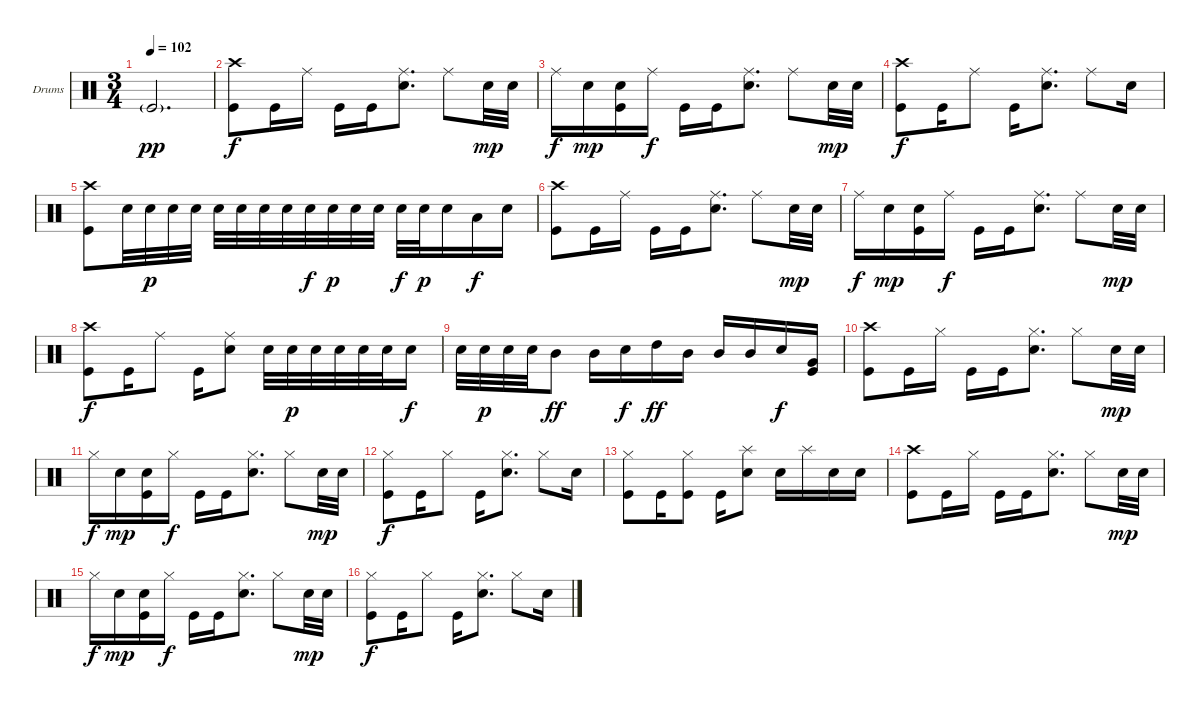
\bracketExtendMode groupsimilarinstruments
\firstSystemTrackNameOrientation horizontal
\otherSystemsTrackNameOrientation horizontal
\track ("Drumkit" "Drums") {instrument percussion}
\staff {score}
\articulation defaults
\ts (3 4)
\tempo 102
\clef neutral
\ks c "Kick (hit)"{g}.2{d dy pp}
|
("Crash high (hit)" "Kick (hit)").8{dy f} "Kick (hit)".16 "Ride (middle)".16 "Kick (hit)".16 "Kick (hit)".16 ("Ride (middle)" "Snare (hit) 2").8{d} "Ride (middle)".8 "Snare (hit) 2".32{dy mp} "Snare (hit) 2".32 |
"Ride (middle)".16{dy f} "Snare (hit) 2".16{dy mp} ("Snare (hit) 2" "Kick (hit)").16 "Ride (middle)".16{dy f} "Kick (hit)".16 "Kick (hit)".16 ("Ride (middle)" "Snare (hit) 2").8{d} "Ride (middle)".8 "Snare (hit) 2".32{dy mp} "Snare (hit) 2".32 |
("Crash high (hit)" "Kick (hit)").8{dy f} "Kick (hit)".16 "Ride (middle)".8 "Kick (hit)".16 ("Ride (middle)" "Snare (hit) 2").8{d} "Ride (middle)".8 "Snare (hit) 2".16 |
("Crash high (hit)" "Kick (hit)").8 "Snare (hit) 2".32 "Snare (hit) 2".32{dy p} "Snare (hit) 2".32 "Snare (hit) 2".32 "Snare (hit) 2".32 "Snare (hit) 2".32 "Snare (hit) 2".32 "Snare (hit) 2".32 "Snare (hit) 2".32{dy f} "Snare (hit) 2".32{dy p} "Snare (hit) 2".32 "Snare (hit) 2".32 "Snare (hit) 2".32{dy f} "Snare (hit) 2".32{dy p} "Snare (hit) 2".16 "Low Tom (hit)".16{dy f} "Snare (hit) 2".16 |
("Crash high (hit)" "Kick (hit)").8 "Kick (hit)".16 "Ride (middle)".16 "Kick (hit)".16 "Kick (hit)".16 ("Ride (middle)" "Snare (hit) 2").8{d} "Ride (middle)".8 "Snare (hit) 2".32{dy mp} "Snare (hit) 2".32 |
"Ride (middle)".16{dy f} "Snare (hit) 2".16{dy mp} ("Snare (hit) 2" "Kick (hit)").16 "Ride (middle)".16{dy f} "Kick (hit)".16 "Kick (hit)".16 ("Ride (middle)" "Snare (hit) 2").8{d} "Ride (middle)".8 "Snare (hit) 2".32{dy mp} "Snare (hit) 2".32 |
("Crash high (hit)" "Kick (hit)").8{dy f} "Kick (hit)".16 "Ride (middle)".8 "Kick (hit)".16 ("Ride (middle)" "Snare (hit) 2").8 "Snare (hit) 2".32 "Snare (hit) 2".32{dy p} "Snare (hit) 2".32 "Snare (hit) 2".32 "Snare (hit) 2".32 "Snare (hit) 2".32 "Snare (hit) 2".16{dy f} |
"Snare (hit) 2".32 "Snare (hit) 2".32{dy p} "Snare (hit) 2".32 "Snare (hit) 2".32 "Mid Tom (hit)".8{dy ff} "Mid Tom (hit)".16 "Snare (hit) 2".16{dy f} "High Tom (hit)".16{dy ff} "Mid Tom (hit)".16 "Mid Tom (hit)".16 "Mid Tom (hit)".16 "Snare (hit) 2".16{dy f} ("Very Low Tom (hit)" "Kick (hit)").16 |
("Crash high (hit)" "Kick (hit)").8 "Kick (hit)".16 "Hi-Hat (closed)".16 "Kick (hit)".16 "Kick (hit)".16 ("Hi-Hat (closed)" "Snare (hit) 2").8{d} "Hi-Hat (closed)".8 "Snare (hit) 2".32{dy mp} "Snare (hit) 2".32 |
"Hi-Hat (closed)".16{dy f} "Snare (hit) 2".16{dy mp} ("Snare (hit) 2" "Kick (hit)").16 "Hi-Hat (closed)".16{dy f} "Kick (hit)".16 "Kick (hit)".16 ("Hi-Hat (closed)" "Snare (hit) 2").8{d} "Hi-Hat (closed)".8 "Snare (hit) 2".32{dy mp} "Snare (hit) 2".32 |
("Hi-Hat (closed)" "Kick (hit)").8{dy f} "Kick (hit)".16 "Hi-Hat (closed)".8 "Kick (hit)".16 ("Hi-Hat (closed)" "Snare (hit) 2").8{d} "Hi-Hat (closed)".8 "Snare (hit) 2".16 |
("Hi-Hat (closed)" "Kick (hit)").8 "Kick (hit)".16 ("Hi-Hat (closed)" "Kick (hit)").8 "Kick (hit)".16 ("Splash (hit)" "Snare (hit) 2").8 "Snare (hit) 2".16 "Splash (hit)".16 "Snare (hit) 2".16 "Snare (hit) 2".16 |
("Crash high (hit)" "Kick (hit)").8 "Kick (hit)".16 "Hi-Hat (closed)".16 "Kick (hit)".16 "Kick (hit)".16 ("Hi-Hat (closed)" "Snare (hit) 2").8{d} "Hi-Hat (closed)".8 "Snare (hit) 2".32{dy mp} "Snare (hit) 2".32 |
"Hi-Hat (closed)".16{dy f} "Snare (hit) 2".16{dy mp} ("Snare (hit) 2" "Kick (hit)").16 "Hi-Hat (closed)".16{dy f} "Kick (hit)".16 "Kick (hit)".16 ("Hi-Hat (closed)" "Snare (hit) 2").8{d} "Hi-Hat (closed)".8 "Snare (hit) 2".32{dy mp} "Snare (hit) 2".32 |
("Hi-Hat (closed)" "Kick (hit)").8{dy f} "Kick (hit)".16 "Hi-Hat (closed)".8 "Kick (hit)".16 ("Hi-Hat (closed)" "Snare (hit) 2").8{d} "Hi-Hat (closed)".8 "Snare (hit) 2".16
